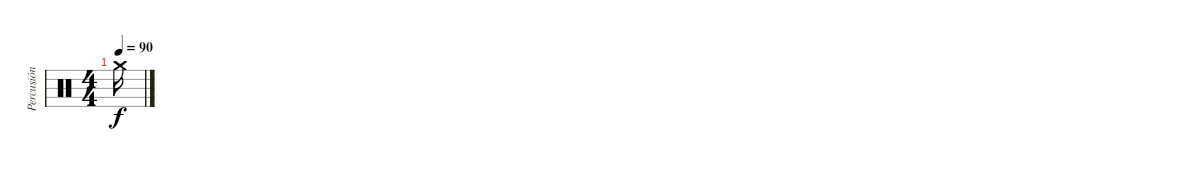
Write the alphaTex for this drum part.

\track ("Percusión" "Percusión") {instrument percussion}
\staff {score}
\articulation defaults
\ts (4 4)
\tempo 90
\clef neutral
\ks c "Crash medium (hit)".16{dy f}
